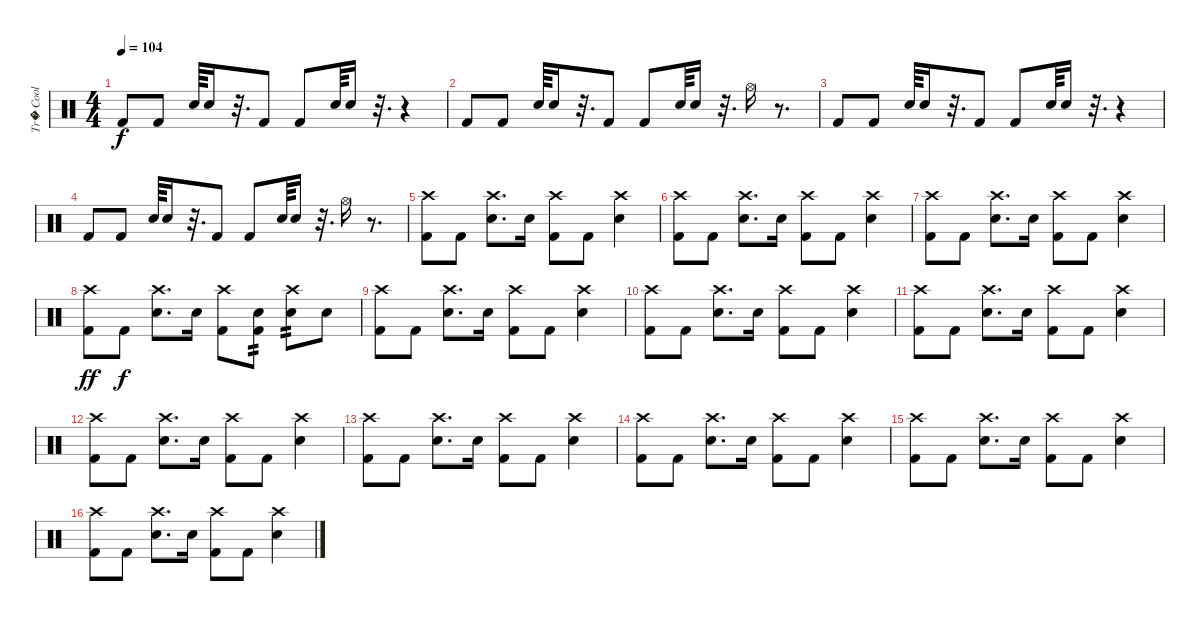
\track ("Tr� Cool" "Tr� Cool") {instrument percussion}
\staff {score}
\articulation defaults
\ts (4 4)
\tempo 104
\clef neutral
\ks c "Kick (hit) 2".8{dy f volume 13} "Kick (hit) 2".8 "Electric Snare (hit)".64 "Electric Snare (hit)".16
r.32{d} "Kick (hit) 2".8 "Kick (hit) 2".8 "Electric Snare (hit)".64 "Electric Snare (hit)".16 r.32{d} r.4 |
"Kick (hit) 2".8{volume 13} "Kick (hit) 2".8 "Electric Snare (hit)".64 "Electric Snare (hit)".16 r.32{d} "Kick (hit) 2".8 "Kick (hit) 2".8 "Electric Snare (hit)".64 "Electric Snare (hit)".16 r.32{d} "Hi-Hat (open)".16 r.8{d} |
"Kick (hit) 2".8{volume 13} "Kick (hit) 2".8 "Electric Snare (hit)".64 "Electric Snare (hit)".16 r.32{d} "Kick (hit) 2".8 "Kick (hit) 2".8 "Electric Snare (hit)".64 "Electric Snare (hit)".16 r.32{d} r.4 |
"Kick (hit) 2".8{volume 13} "Kick (hit) 2".8 "Electric Snare (hit)".64 "Electric Snare (hit)".16 r.32{d} "Kick (hit) 2".8 "Kick (hit) 2".8 "Electric Snare (hit)".64 "Electric Snare (hit)".16 r.32{d} "Hi-Hat (open)".16 r.8{d} |
("Crash high (hit)" "Kick (hit) 2").8 "Kick (hit) 2".8 ("Crash high (hit)" "Electric Snare (hit)").8{d} "Electric Snare (hit)".16 ("Crash high (hit)" "Kick (hit) 2").8 "Kick (hit) 2".8 ("Crash high (hit)" "Electric Snare (hit)").4 |
("Crash high (hit)" "Kick (hit) 2").8 "Kick (hit) 2".8 ("Crash high (hit)" "Electric Snare (hit)").8{d} "Electric Snare (hit)".16 ("Crash high (hit)" "Kick (hit) 2").8 "Kick (hit) 2".8 ("Crash high (hit)" "Electric Snare (hit)").4 |
("Crash high (hit)" "Kick (hit) 2").8 "Kick (hit) 2".8 ("Crash high (hit)" "Electric Snare (hit)").8{d} "Electric Snare (hit)".16 ("Crash high (hit)" "Kick (hit) 2").8 "Kick (hit) 2".8 ("Crash high (hit)" "Electric Snare (hit)").4 |
("Crash high (hit)" "Kick (hit) 2").8{dy ff} "Kick (hit) 2".8{dy f} ("Crash high (hit)" "Electric Snare (hit)").8{d} "Electric Snare (hit)".16 ("Crash high (hit)" "Kick (hit) 2").8 ("Electric Snare (hit)" "Kick (hit) 2").8{tp 2} ("Crash high (hit)" "Electric Snare (hit)").8{tp 2} "Electric Snare (hit)".8 |
("Crash high (hit)" "Kick (hit) 2").8 "Kick (hit) 2".8 ("Crash high (hit)" "Electric Snare (hit)").8{d} "Electric Snare (hit)".16 ("Crash high (hit)" "Kick (hit) 2").8 "Kick (hit) 2".8 ("Crash high (hit)" "Electric Snare (hit)").4 |
("Crash high (hit)" "Kick (hit) 2").8 "Kick (hit) 2".8 ("Crash high (hit)" "Electric Snare (hit)").8{d} "Electric Snare (hit)".16 ("Crash high (hit)" "Kick (hit) 2").8 "Kick (hit) 2".8 ("Crash high (hit)" "Electric Snare (hit)").4 |
("Crash high (hit)" "Kick (hit) 2").8 "Kick (hit) 2".8 ("Crash high (hit)" "Electric Snare (hit)").8{d} "Electric Snare (hit)".16 ("Crash high (hit)" "Kick (hit) 2").8 "Kick (hit) 2".8 ("Crash high (hit)" "Electric Snare (hit)").4 |
("Crash high (hit)" "Kick (hit) 2").8 "Kick (hit) 2".8 ("Crash high (hit)" "Electric Snare (hit)").8{d} "Electric Snare (hit)".16 ("Crash high (hit)" "Kick (hit) 2").8 "Kick (hit) 2".8 ("Crash high (hit)" "Electric Snare (hit)").4 |
("Crash high (hit)" "Kick (hit) 2").8 "Kick (hit) 2".8 ("Crash high (hit)" "Electric Snare (hit)").8{d} "Electric Snare (hit)".16 ("Crash high (hit)" "Kick (hit) 2").8 "Kick (hit) 2".8 ("Crash high (hit)" "Electric Snare (hit)").4 |
("Crash high (hit)" "Kick (hit) 2").8 "Kick (hit) 2".8 ("Crash high (hit)" "Electric Snare (hit)").8{d} "Electric Snare (hit)".16 ("Crash high (hit)" "Kick (hit) 2").8 "Kick (hit) 2".8 ("Crash high (hit)" "Electric Snare (hit)").4 |
("Crash high (hit)" "Kick (hit) 2").8 "Kick (hit) 2".8 ("Crash high (hit)" "Electric Snare (hit)").8{d} "Electric Snare (hit)".16 ("Crash high (hit)" "Kick (hit) 2").8 "Kick (hit) 2".8 ("Crash high (hit)" "Electric Snare (hit)").4 |
("Crash high (hit)" "Kick (hit) 2").8 "Kick (hit) 2".8 ("Crash high (hit)" "Electric Snare (hit)").8{d} "Electric Snare (hit)".16 ("Crash high (hit)" "Kick (hit) 2").8 "Kick (hit) 2".8 ("Crash high (hit)" "Electric Snare (hit)").4
